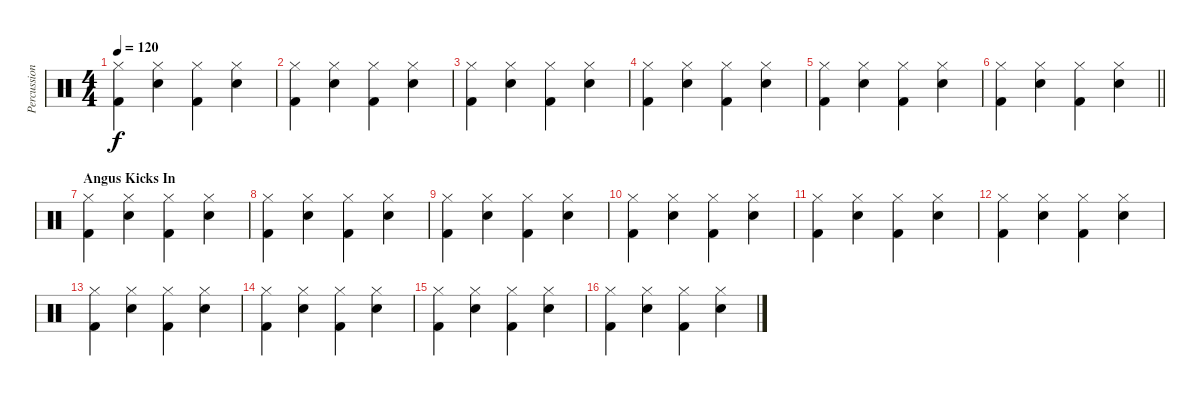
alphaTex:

\track ("Percussion" "Percussion") {instrument percussion}
\staff {score}
\articulation defaults
\ts (4 4)
\tempo 120
\clef neutral
\ks c
("Hi-Hat (closed)" "Kick (hit) 2").4{dy f} ("Hi-Hat (closed)" "Electric Snare (hit)").4 ("Hi-Hat (closed)" "Kick (hit) 2").4 ("Hi-Hat (closed)" "Electric Snare (hit)").4 |
("Hi-Hat (closed)" "Kick (hit) 2").4 ("Hi-Hat (closed)" "Electric Snare (hit)").4 ("Hi-Hat (closed)" "Kick (hit) 2").4 ("Hi-Hat (closed)" "Electric Snare (hit)").4 |
("Hi-Hat (closed)" "Kick (hit) 2").4 ("Hi-Hat (closed)" "Electric Snare (hit)").4 ("Hi-Hat (closed)" "Kick (hit) 2").4 ("Hi-Hat (closed)" "Electric Snare (hit)").4 |
("Hi-Hat (closed)" "Kick (hit) 2").4 ("Hi-Hat (closed)" "Electric Snare (hit)").4 ("Hi-Hat (closed)" "Kick (hit) 2").4 ("Hi-Hat (closed)" "Electric Snare (hit)").4 |
("Hi-Hat (closed)" "Kick (hit) 2").4 ("Hi-Hat (closed)" "Electric Snare (hit)").4 ("Hi-Hat (closed)" "Kick (hit) 2").4 ("Hi-Hat (closed)" "Electric Snare (hit)").4 |
\barLineRight lightlight
("Hi-Hat (closed)" "Kick (hit) 2").4 ("Hi-Hat (closed)" "Electric Snare (hit)").4 ("Hi-Hat (closed)" "Kick (hit) 2").4 ("Hi-Hat (closed)" "Electric Snare (hit)").4 |
\section ("" "Angus Kicks In")
("Hi-Hat (closed)" "Kick (hit) 2").4 ("Hi-Hat (closed)" "Electric Snare (hit)").4 ("Hi-Hat (closed)" "Kick (hit) 2").4 ("Hi-Hat (closed)" "Electric Snare (hit)").4 |
("Hi-Hat (closed)" "Kick (hit) 2").4 ("Hi-Hat (closed)" "Electric Snare (hit)").4 ("Hi-Hat (closed)" "Kick (hit) 2").4 ("Hi-Hat (closed)" "Electric Snare (hit)").4 |
("Hi-Hat (closed)" "Kick (hit) 2").4 ("Hi-Hat (closed)" "Electric Snare (hit)").4 ("Hi-Hat (closed)" "Kick (hit) 2").4 ("Hi-Hat (closed)" "Electric Snare (hit)").4 |
("Hi-Hat (closed)" "Kick (hit) 2").4 ("Hi-Hat (closed)" "Electric Snare (hit)").4 ("Hi-Hat (closed)" "Kick (hit) 2").4 ("Hi-Hat (closed)" "Electric Snare (hit)").4 |
("Hi-Hat (closed)" "Kick (hit) 2").4 ("Hi-Hat (closed)" "Electric Snare (hit)").4 ("Hi-Hat (closed)" "Kick (hit) 2").4 ("Hi-Hat (closed)" "Electric Snare (hit)").4 |
("Hi-Hat (closed)" "Kick (hit) 2").4 ("Hi-Hat (closed)" "Electric Snare (hit)").4 ("Hi-Hat (closed)" "Kick (hit) 2").4 ("Hi-Hat (closed)" "Electric Snare (hit)").4 |
("Hi-Hat (closed)" "Kick (hit) 2").4 ("Hi-Hat (closed)" "Electric Snare (hit)").4 ("Hi-Hat (closed)" "Kick (hit) 2").4 ("Hi-Hat (closed)" "Electric Snare (hit)").4 |
("Hi-Hat (closed)" "Kick (hit) 2").4 ("Hi-Hat (closed)" "Electric Snare (hit)").4 ("Hi-Hat (closed)" "Kick (hit) 2").4 ("Hi-Hat (closed)" "Electric Snare (hit)").4 |
("Hi-Hat (closed)" "Kick (hit) 2").4 ("Hi-Hat (closed)" "Electric Snare (hit)").4 ("Hi-Hat (closed)" "Kick (hit) 2").4 ("Hi-Hat (closed)" "Electric Snare (hit)").4 |
("Hi-Hat (closed)" "Kick (hit) 2").4 ("Hi-Hat (closed)" "Electric Snare (hit)").4 ("Hi-Hat (closed)" "Kick (hit) 2").4 ("Hi-Hat (closed)" "Electric Snare (hit)").4
